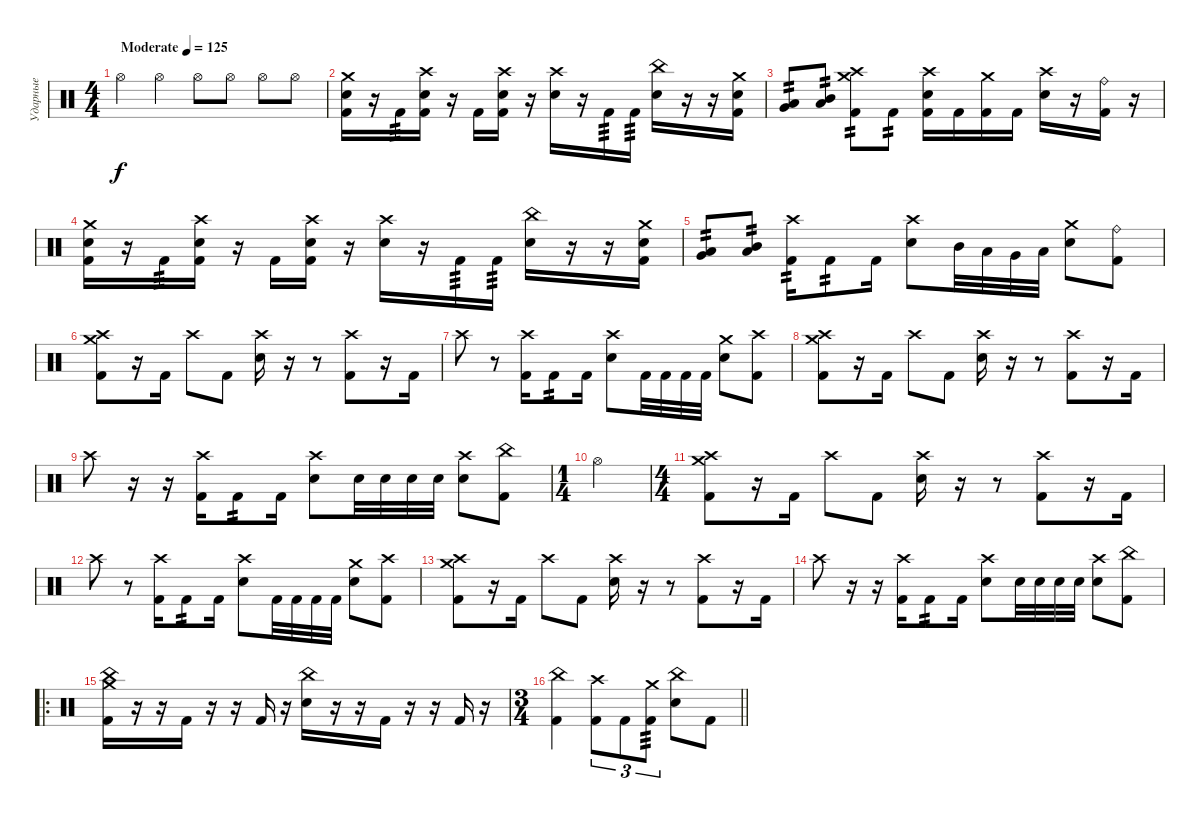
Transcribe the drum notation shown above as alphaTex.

\track ("Ударные" "Ударные") {instrument percussion}
\staff {score}
\articulation defaults
\ts (4 4)
\tempo (125 "Moderate")
\clef neutral
\ks c "Hi-Hat (open)".4{dy f} "Hi-Hat (open)".4 "Hi-Hat (open)".8 "Hi-Hat (open)".8 "Hi-Hat (open)".8 "Hi-Hat (open)".8
|
("Kick (hit) 2" "Snare (hit) 2" "Crash medium (hit)").16 r.16 "Kick (hit) 2".16{tp 3} ("Snare (hit) 2" "Kick (hit) 2" "Crash high (hit)").16 r.16 "Kick (hit) 2".16 ("Snare (hit) 2" "Kick (hit) 2" "Crash high (hit)").16 r.16 ("Crash high (hit)" "Snare (hit) 2").16 r.16 "Kick (hit) 2".16{tp 3} "Kick (hit) 2".16{tp 3} ("China (hit)" "Snare (hit) 2").16 r.16 r.16 ("Crash medium (hit)" "Snare (hit) 2" "Kick (hit) 2").16 |
("Very Low Tom (hit)" "Low Floor Tom (hit)").8{tp 2} ("Mid Tom (hit)" "Low Tom (hit)").8{tp 2} ("Crash high (hit)" "Crash medium (hit)" "Kick (hit) 2").8{tp 2} "Kick (hit) 2".8{tp 2} ("Crash high (hit)" "Snare (hit) 2" "Kick (hit) 2").16 "Kick (hit) 2".16 ("Crash medium (hit)" "Kick (hit) 2").16 "Kick (hit) 2".16 ("Crash high (hit)" "Snare (hit) 2").16 r.16 ("Ride (bell)" "Kick (hit) 2").16 r.16 |
("Kick (hit) 2" "Snare (hit) 2" "Crash medium (hit)").16 r.16 "Kick (hit) 2".16{tp 3} ("Snare (hit) 2" "Kick (hit) 2" "Crash high (hit)").16 r.16 "Kick (hit) 2".16 ("Snare (hit) 2" "Kick (hit) 2" "Crash high (hit)").16 r.16 ("Crash high (hit)" "Snare (hit) 2").16 r.16 "Kick (hit) 2".16{tp 3} "Kick (hit) 2".16{tp 3} ("China (hit)" "Snare (hit) 2").16 r.16 r.16 ("Crash medium (hit)" "Snare (hit) 2" "Kick (hit) 2").16 |
("Very Low Tom (hit)" "Low Floor Tom (hit)").8{tp 2} ("Mid Tom (hit)" "Low Tom (hit)").8{tp 2} ("Crash high (hit)" "Kick (hit) 2").16{tp 2} "Kick (hit) 2".8{tp 2} "Kick (hit) 2".16 ("Crash high (hit)" "Snare (hit) 2").8 "Mid Tom (hit)".32 "Low Tom (hit)".32 "Very Low Tom (hit)".32 "Low Floor Tom (hit)".32 ("Crash medium (hit)" "Electric Snare (hit)").8 ("Ride (bell)" "Kick (hit) 2").8 |
("Crash high (hit)" "Crash medium (hit)" "Kick (hit) 2").8 r.16 "Kick (hit) 2".16 "Crash high (hit)".8 "Kick (hit) 2".8 ("Crash high (hit)" "Snare (hit) 2").16 r.16 r.8 ("Crash high (hit)" "Kick (hit) 2").8 r.16 "Kick (hit) 2".16 |
"Crash high (hit)".8 r.8 ("Crash high (hit)" "Kick (hit) 2").16 "Kick (hit) 2".8{tp 2} "Kick (hit) 2".16 ("Crash high (hit)" "Snare (hit) 2").8 "Kick (hit) 2".32 "Kick (hit) 2".32 "Kick (hit) 2".32 "Kick (hit) 2".32 ("Crash medium (hit)" "Electric Snare (hit)").8 ("Crash high (hit)" "Kick (hit) 2").8 |
("Crash high (hit)" "Crash medium (hit)" "Kick (hit) 2").8 r.16 "Kick (hit) 2".16 "Crash high (hit)".8 "Kick (hit) 2".8 ("Crash high (hit)" "Snare (hit) 2").16 r.16 r.8 ("Crash high (hit)" "Kick (hit) 2").8 r.16 "Kick (hit) 2".16 |
"Crash high (hit)".8 r.16 r.16 ("Crash high (hit)" "Kick (hit) 2").16 "Kick (hit) 2".8{tp 2} "Kick (hit) 2".16 ("Crash high (hit)" "Snare (hit) 2").8 "Snare (hit) 2".32 "Snare (hit) 2".32 "Snare (hit) 2".32 "Snare (hit) 2".32 ("Crash high (hit)" "Snare (hit) 2").8 ("China (hit)" "Kick (hit) 2").8 |
\ts (1 4)
"Hi-Hat (open)".4 |
\ts (4 4)
("Crash high (hit)" "Crash medium (hit)" "Kick (hit) 2").8 r.16 "Kick (hit) 2".16 "Crash high (hit)".8 "Kick (hit) 2".8 ("Crash high (hit)" "Snare (hit) 2").16 r.16 r.8 ("Crash high (hit)" "Kick (hit) 2").8 r.16 "Kick (hit) 2".16 |
"Crash high (hit)".8 r.8 ("Crash high (hit)" "Kick (hit) 2").16 "Kick (hit) 2".8{tp 2} "Kick (hit) 2".16 ("Crash high (hit)" "Snare (hit) 2").8 "Kick (hit) 2".32 "Kick (hit) 2".32 "Kick (hit) 2".32 "Kick (hit) 2".32 ("Crash medium (hit)" "Electric Snare (hit)").8 ("Crash high (hit)" "Kick (hit) 2").8 |
("Crash high (hit)" "Crash medium (hit)" "Kick (hit) 2").8 r.16 "Kick (hit) 2".16 "Crash high (hit)".8 "Kick (hit) 2".8 ("Crash high (hit)" "Snare (hit) 2").16 r.16 r.8 ("Crash high (hit)" "Kick (hit) 2").8 r.16 "Kick (hit) 2".16 |
"Crash high (hit)".8 r.16 r.16 ("Crash high (hit)" "Kick (hit) 2").16 "Kick (hit) 2".8{tp 2} "Kick (hit) 2".16 ("Crash high (hit)" "Snare (hit) 2").8 "Snare (hit) 2".32 "Snare (hit) 2".32 "Snare (hit) 2".32 "Snare (hit) 2".32 ("Crash high (hit)" "Snare (hit) 2").8 ("China (hit)" "Kick (hit) 2").8 |
\ro
("China (hit)" "Crash medium (hit)" "Kick (hit) 2").16 r.16 r.16 "Kick (hit) 2".16 r.16 r.16 "Kick (hit) 2".16 r.16 ("China (hit)" "Snare (hit) 2").16 r.16 r.16 "Kick (hit) 2".16 r.16 r.16 "Kick (hit) 2".16 r.16 |
\ts (3 4)
\barLineRight lightlight
("China (hit)" "Kick (hit) 2").4 ("Crash high (hit)" "Kick (hit) 2").8{tu (3 2)} "Kick (hit) 2".8{tu (3 2)} ("Crash medium (hit)" "Kick (hit) 2").8{tu (3 2) tp 3} ("China (hit)" "Snare (hit) 2").8 "Kick (hit) 2".8
